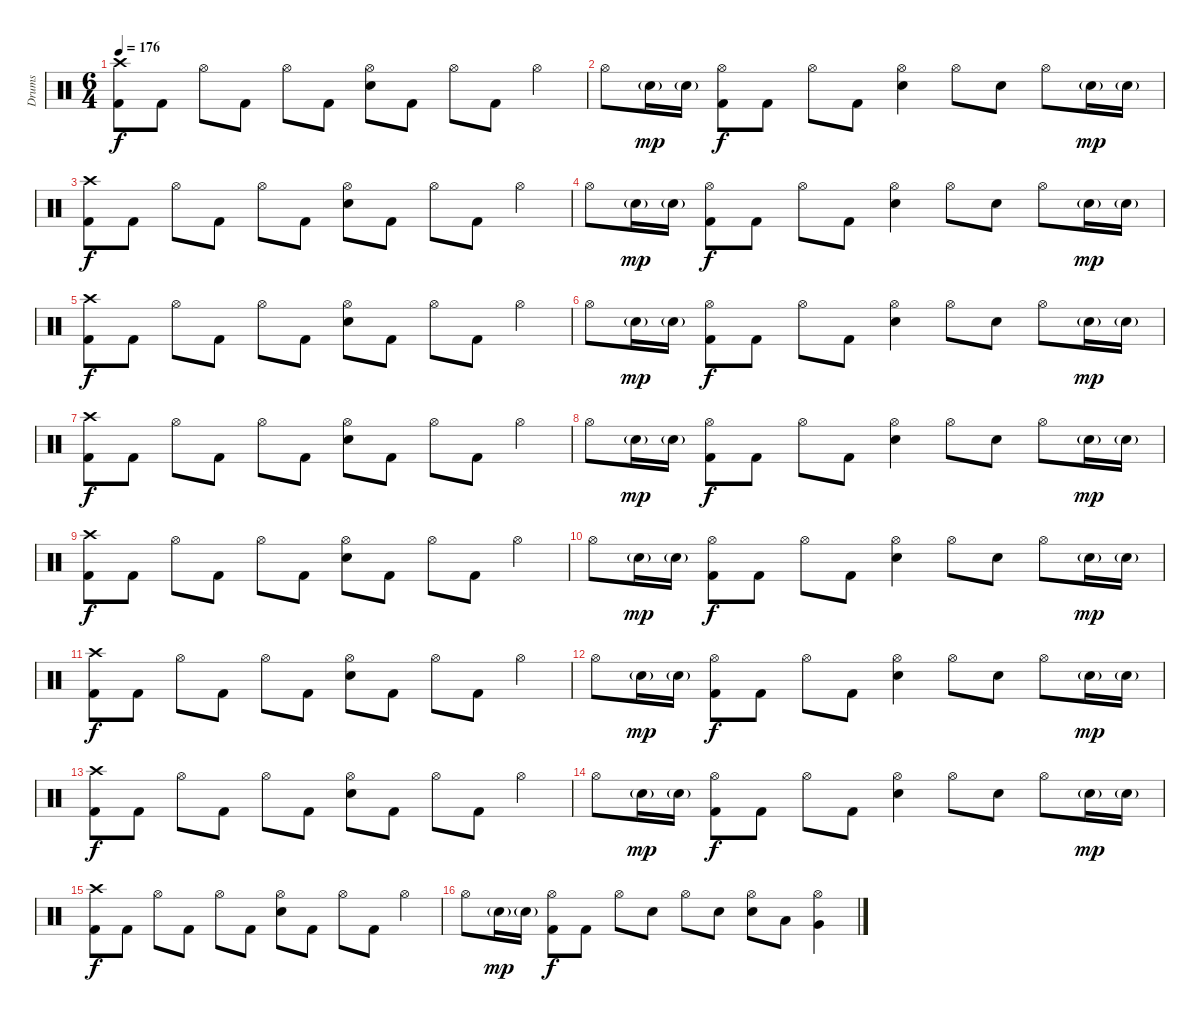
\track ("Drums" "Drums") {instrument percussion}
\staff {score}
\articulation defaults
\ts (6 4)
\tempo 176
\clef neutral
\ks c
("Crash high (hit)" "Kick (hit) 2").8{dy f} "Kick (hit) 2".8 "Hi-Hat (open)".8 "Kick (hit) 2".8 "Hi-Hat (open)".8 "Kick (hit) 2".8 ("Hi-Hat (open)" "Snare (hit) 2").8 "Kick (hit) 2".8 "Hi-Hat (open)".8 "Kick (hit) 2".8 "Hi-Hat (open)".4 |
"Hi-Hat (open)".8 "Snare (hit) 2"{g}.16{dy mp} "Snare (hit) 2"{g}.16 ("Hi-Hat (open)" "Kick (hit) 2").8{dy f} "Kick (hit) 2".8 "Hi-Hat (open)".8 "Kick (hit) 2".8 ("Hi-Hat (open)" "Snare (hit) 2").4 "Hi-Hat (open)".8 "Snare (hit) 2".8 "Hi-Hat (open)".8 "Snare (hit) 2"{g}.16{dy mp} "Snare (hit) 2"{g}.16 |
("Crash high (hit)" "Kick (hit) 2").8{dy f} "Kick (hit) 2".8 "Hi-Hat (open)".8 "Kick (hit) 2".8 "Hi-Hat (open)".8 "Kick (hit) 2".8 ("Hi-Hat (open)" "Snare (hit) 2").8 "Kick (hit) 2".8 "Hi-Hat (open)".8 "Kick (hit) 2".8 "Hi-Hat (open)".4 |
"Hi-Hat (open)".8 "Snare (hit) 2"{g}.16{dy mp} "Snare (hit) 2"{g}.16 ("Hi-Hat (open)" "Kick (hit) 2").8{dy f} "Kick (hit) 2".8 "Hi-Hat (open)".8 "Kick (hit) 2".8 ("Hi-Hat (open)" "Snare (hit) 2").4 "Hi-Hat (open)".8 "Snare (hit) 2".8 "Hi-Hat (open)".8 "Snare (hit) 2"{g}.16{dy mp} "Snare (hit) 2"{g}.16 |
("Crash high (hit)" "Kick (hit) 2").8{dy f} "Kick (hit) 2".8 "Hi-Hat (open)".8 "Kick (hit) 2".8 "Hi-Hat (open)".8 "Kick (hit) 2".8 ("Hi-Hat (open)" "Snare (hit) 2").8 "Kick (hit) 2".8 "Hi-Hat (open)".8 "Kick (hit) 2".8 "Hi-Hat (open)".4 |
"Hi-Hat (open)".8 "Snare (hit) 2"{g}.16{dy mp} "Snare (hit) 2"{g}.16 ("Hi-Hat (open)" "Kick (hit) 2").8{dy f} "Kick (hit) 2".8 "Hi-Hat (open)".8 "Kick (hit) 2".8 ("Hi-Hat (open)" "Snare (hit) 2").4 "Hi-Hat (open)".8 "Snare (hit) 2".8 "Hi-Hat (open)".8 "Snare (hit) 2"{g}.16{dy mp} "Snare (hit) 2"{g}.16 |
("Crash high (hit)" "Kick (hit) 2").8{dy f} "Kick (hit) 2".8 "Hi-Hat (open)".8 "Kick (hit) 2".8 "Hi-Hat (open)".8 "Kick (hit) 2".8 ("Hi-Hat (open)" "Snare (hit) 2").8 "Kick (hit) 2".8 "Hi-Hat (open)".8 "Kick (hit) 2".8 "Hi-Hat (open)".4 |
"Hi-Hat (open)".8 "Snare (hit) 2"{g}.16{dy mp} "Snare (hit) 2"{g}.16 ("Hi-Hat (open)" "Kick (hit) 2").8{dy f} "Kick (hit) 2".8 "Hi-Hat (open)".8 "Kick (hit) 2".8 ("Hi-Hat (open)" "Snare (hit) 2").4 "Hi-Hat (open)".8 "Snare (hit) 2".8 "Hi-Hat (open)".8 "Snare (hit) 2"{g}.16{dy mp} "Snare (hit) 2"{g}.16 |
("Crash high (hit)" "Kick (hit) 2").8{dy f} "Kick (hit) 2".8 "Hi-Hat (open)".8 "Kick (hit) 2".8 "Hi-Hat (open)".8 "Kick (hit) 2".8 ("Hi-Hat (open)" "Snare (hit) 2").8 "Kick (hit) 2".8 "Hi-Hat (open)".8 "Kick (hit) 2".8 "Hi-Hat (open)".4 |
"Hi-Hat (open)".8 "Snare (hit) 2"{g}.16{dy mp} "Snare (hit) 2"{g}.16 ("Hi-Hat (open)" "Kick (hit) 2").8{dy f} "Kick (hit) 2".8 "Hi-Hat (open)".8 "Kick (hit) 2".8 ("Hi-Hat (open)" "Snare (hit) 2").4 "Hi-Hat (open)".8 "Snare (hit) 2".8 "Hi-Hat (open)".8 "Snare (hit) 2"{g}.16{dy mp} "Snare (hit) 2"{g}.16 |
("Crash high (hit)" "Kick (hit) 2").8{dy f} "Kick (hit) 2".8 "Hi-Hat (open)".8 "Kick (hit) 2".8 "Hi-Hat (open)".8 "Kick (hit) 2".8 ("Hi-Hat (open)" "Snare (hit) 2").8 "Kick (hit) 2".8 "Hi-Hat (open)".8 "Kick (hit) 2".8 "Hi-Hat (open)".4 |
"Hi-Hat (open)".8 "Snare (hit) 2"{g}.16{dy mp} "Snare (hit) 2"{g}.16 ("Hi-Hat (open)" "Kick (hit) 2").8{dy f} "Kick (hit) 2".8 "Hi-Hat (open)".8 "Kick (hit) 2".8 ("Hi-Hat (open)" "Snare (hit) 2").4 "Hi-Hat (open)".8 "Snare (hit) 2".8 "Hi-Hat (open)".8 "Snare (hit) 2"{g}.16{dy mp} "Snare (hit) 2"{g}.16 |
("Crash high (hit)" "Kick (hit) 2").8{dy f} "Kick (hit) 2".8 "Hi-Hat (open)".8 "Kick (hit) 2".8 "Hi-Hat (open)".8 "Kick (hit) 2".8 ("Hi-Hat (open)" "Snare (hit) 2").8 "Kick (hit) 2".8 "Hi-Hat (open)".8 "Kick (hit) 2".8 "Hi-Hat (open)".4 |
"Hi-Hat (open)".8 "Snare (hit) 2"{g}.16{dy mp} "Snare (hit) 2"{g}.16 ("Hi-Hat (open)" "Kick (hit) 2").8{dy f} "Kick (hit) 2".8 "Hi-Hat (open)".8 "Kick (hit) 2".8 ("Hi-Hat (open)" "Snare (hit) 2").4 "Hi-Hat (open)".8 "Snare (hit) 2".8 "Hi-Hat (open)".8 "Snare (hit) 2"{g}.16{dy mp} "Snare (hit) 2"{g}.16 |
("Crash high (hit)" "Kick (hit) 2").8{dy f} "Kick (hit) 2".8 "Hi-Hat (open)".8 "Kick (hit) 2".8 "Hi-Hat (open)".8 "Kick (hit) 2".8 ("Hi-Hat (open)" "Snare (hit) 2").8 "Kick (hit) 2".8 "Hi-Hat (open)".8 "Kick (hit) 2".8 "Hi-Hat (open)".4 |
"Hi-Hat (open)".8 "Snare (hit) 2"{g}.16{dy mp} "Snare (hit) 2"{g}.16 ("Hi-Hat (open)" "Kick (hit) 2").8{dy f} "Kick (hit) 2".8 "Hi-Hat (open)".8 "Snare (hit) 2".8 "Hi-Hat (open)".8 "Snare (hit) 2".8 ("Hi-Hat (open)" "Snare (hit) 2").8 "Low Tom (hit)".8 ("Hi-Hat (open)" "Very Low Tom (hit)").4
